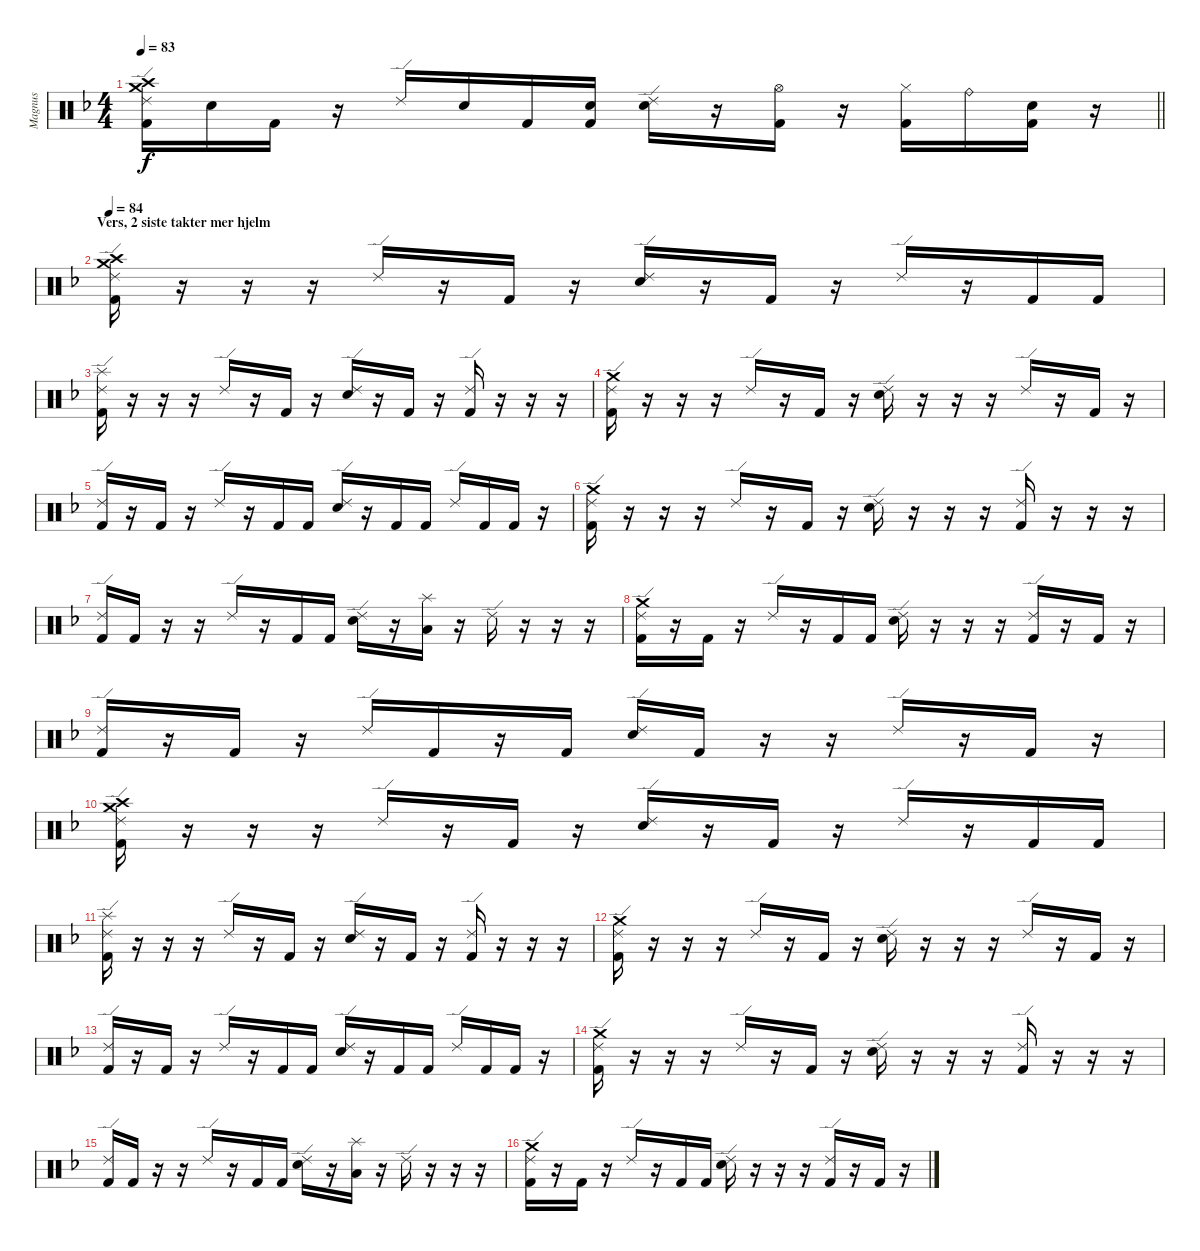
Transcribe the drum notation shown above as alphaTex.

\track ("Magnus" "Magnus") {instrument percussion}
\staff {score}
\articulation defaults
\ts (4 4)
\tempo 83
\clef neutral
\barLineRight lightlight
\ks dminor
("Crash high (hit)" "Crash medium (hit)" "Ride (edge) 2" "Kick (hit) 2").16{dy f} "Snare (hit) 2".16 "Kick (hit) 2".16 r.16 "Ride (edge) 2".16 "Snare (hit) 2".16 "Kick (hit) 2".16 ("Snare (hit) 2" "Kick (hit) 2").16 ("Ride (edge) 2" "Snare (hit) 2").16 r.16 ("Hi-Hat (open)" "Kick (hit) 2").16 r.16 ("Hi-Hat (closed)" "Kick (hit) 2").16 "Ride (bell)".16 ("Snare (hit) 2" "Kick (hit) 2").16 r.16 |
\section ("" "Vers, 2 siste takter mer hjelm")
\tempo 84
("Crash medium (hit)" "Crash high (hit)" "Ride (edge) 2" "Kick (hit) 2").16 r.16 r.16 r.16 "Ride (edge) 2".16 r.16 "Kick (hit) 2".16 r.16 ("Ride (edge) 2" "Snare (hit) 2").16 r.16 "Kick (hit) 2".16 r.16 "Ride (edge) 2".16 r.16 "Kick (hit) 2".16 "Kick (hit) 2".16 |
("Splash (hit)" "Ride (edge) 2" "Kick (hit) 2").16 r.16 r.16 r.16 "Ride (edge) 2".16 r.16 "Kick (hit) 2".16 r.16 ("Ride (edge) 2" "Snare (hit) 2").16 r.16 "Kick (hit) 2".16 r.16 ("Ride (edge) 2" "Kick (hit) 2").16 r.16 r.16 r.16 |
("Crash medium (hit)" "Ride (edge) 2" "Kick (hit) 2").16 r.16 r.16 r.16 "Ride (edge) 2".16 r.16 "Kick (hit) 2".16 r.16 ("Ride (edge) 2" "Snare (hit) 2").16 r.16 r.16 r.16 "Ride (edge) 2".16 r.16 "Kick (hit) 2".16 r.16 |
("Ride (edge) 2" "Kick (hit) 2").16 r.16 "Kick (hit) 2".16 r.16 "Ride (edge) 2".16 r.16 "Kick (hit) 2".16 "Kick (hit) 2".16 ("Ride (edge) 2" "Snare (hit) 2").16 r.16 "Kick (hit) 2".16 "Kick (hit) 2".16 "Ride (edge) 2".16 "Kick (hit) 2".16 "Kick (hit) 2".16 r.16 |
("Crash medium (hit)" "Ride (edge) 2" "Kick (hit) 2").16 r.16 r.16 r.16 "Ride (edge) 2".16 r.16 "Kick (hit) 2".16 r.16 ("Ride (edge) 2" "Snare (hit) 2").16 r.16 r.16 r.16 ("Ride (edge) 2" "Kick (hit) 2").16 r.16 r.16 r.16 |
("Ride (edge) 2" "Kick (hit) 2").16 "Kick (hit) 2".16 r.16 r.16 "Ride (edge) 2".16 r.16 "Kick (hit) 2".16 "Kick (hit) 2".16 ("Ride (edge) 2" "Snare (hit) 2").16 r.16 ("Splash (hit)" "Low Tom (hit)").16 r.16 "Ride (edge) 2".16 r.16 r.16 r.16 |
("Crash medium (hit)" "Ride (edge) 2" "Kick (hit) 2").16 r.16 "Kick (hit) 2".16 r.16 "Ride (edge) 2".16 r.16 "Kick (hit) 2".16 "Kick (hit) 2".16 ("Ride (edge) 2" "Snare (hit) 2").16 r.16 r.16 r.16 ("Ride (edge) 2" "Kick (hit) 2").16 r.16 "Kick (hit) 2".16 r.16 |
("Ride (edge) 2" "Kick (hit) 2").16 r.16 "Kick (hit) 2".16 r.16 "Ride (edge) 2".16 "Kick (hit) 2".16 r.16 "Kick (hit) 2".16 ("Ride (edge) 2" "Snare (hit) 2").16 "Kick (hit) 2".16 r.16 r.16 "Ride (edge) 2".16 r.16 "Kick (hit) 2".16 r.16 |
("Crash medium (hit)" "Crash high (hit)" "Ride (edge) 2" "Kick (hit) 2").16 r.16 r.16 r.16 "Ride (edge) 2".16 r.16 "Kick (hit) 2".16 r.16 ("Ride (edge) 2" "Snare (hit) 2").16 r.16 "Kick (hit) 2".16 r.16 "Ride (edge) 2".16 r.16 "Kick (hit) 2".16 "Kick (hit) 2".16 |
("Splash (hit)" "Ride (edge) 2" "Kick (hit) 2").16 r.16 r.16 r.16 "Ride (edge) 2".16 r.16 "Kick (hit) 2".16 r.16 ("Ride (edge) 2" "Snare (hit) 2").16 r.16 "Kick (hit) 2".16 r.16 ("Ride (edge) 2" "Kick (hit) 2").16 r.16 r.16 r.16 |
("Crash medium (hit)" "Ride (edge) 2" "Kick (hit) 2").16 r.16 r.16 r.16 "Ride (edge) 2".16 r.16 "Kick (hit) 2".16 r.16 ("Ride (edge) 2" "Snare (hit) 2").16 r.16 r.16 r.16 "Ride (edge) 2".16 r.16 "Kick (hit) 2".16 r.16 |
("Ride (edge) 2" "Kick (hit) 2").16 r.16 "Kick (hit) 2".16 r.16 "Ride (edge) 2".16 r.16 "Kick (hit) 2".16 "Kick (hit) 2".16 ("Ride (edge) 2" "Snare (hit) 2").16 r.16 "Kick (hit) 2".16 "Kick (hit) 2".16 "Ride (edge) 2".16 "Kick (hit) 2".16 "Kick (hit) 2".16 r.16 |
("Crash medium (hit)" "Ride (edge) 2" "Kick (hit) 2").16 r.16 r.16 r.16 "Ride (edge) 2".16 r.16 "Kick (hit) 2".16 r.16 ("Ride (edge) 2" "Snare (hit) 2").16 r.16 r.16 r.16 ("Ride (edge) 2" "Kick (hit) 2").16 r.16 r.16 r.16 |
("Ride (edge) 2" "Kick (hit) 2").16 "Kick (hit) 2".16 r.16 r.16 "Ride (edge) 2".16 r.16 "Kick (hit) 2".16 "Kick (hit) 2".16 ("Ride (edge) 2" "Snare (hit) 2").16 r.16 ("Splash (hit)" "Low Tom (hit)").16 r.16 "Ride (edge) 2".16 r.16 r.16 r.16 |
("Crash medium (hit)" "Ride (edge) 2" "Kick (hit) 2").16 r.16 "Kick (hit) 2".16 r.16 "Ride (edge) 2".16 r.16 "Kick (hit) 2".16 "Kick (hit) 2".16 ("Ride (edge) 2" "Snare (hit) 2").16 r.16 r.16 r.16 ("Ride (edge) 2" "Kick (hit) 2").16 r.16 "Kick (hit) 2".16 r.16
